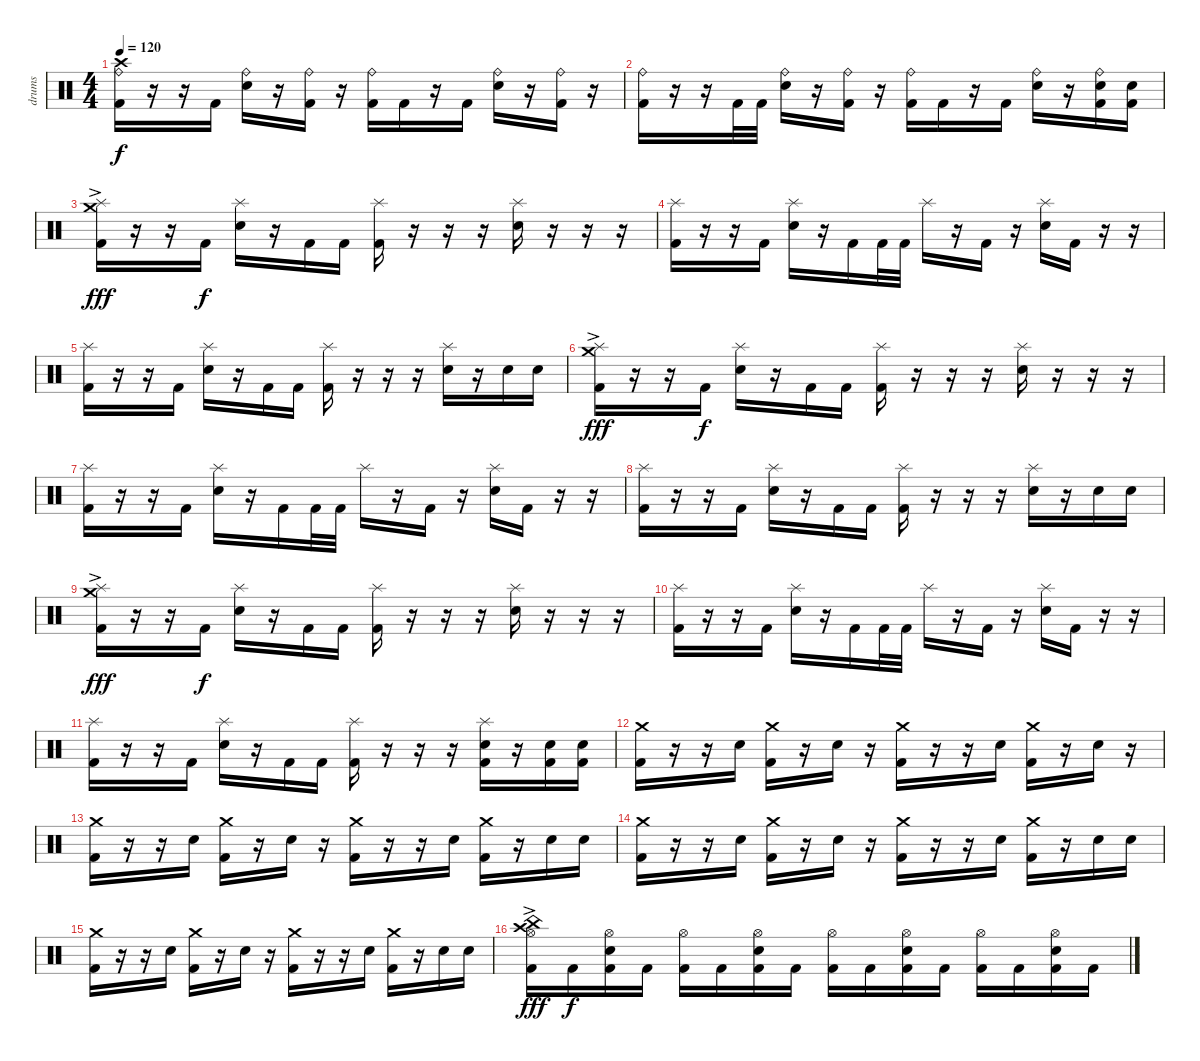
\track ("drums" "drums") {instrument percussion}
\staff {score}
\articulation defaults
\ts (4 4)
\tempo 120
\clef neutral
\ks c
("Crash high (hit)" "Ride (bell)" "Kick (hit) 2").16{dy f} r.16 r.16 "Kick (hit) 2".16 ("Ride (bell)" "Electric Snare (hit)").16 r.16 ("Ride (bell)" "Kick (hit) 2").16 r.16 ("Ride (bell)" "Kick (hit) 2").16 "Kick (hit) 2".16 r.16 "Kick (hit) 2".16 ("Ride (bell)" "Electric Snare (hit)").16 r.16 ("Ride (bell)" "Kick (hit) 2").16 r.16 |
("Ride (bell)" "Kick (hit) 2").16 r.16 r.16 "Kick (hit) 2".32 "Kick (hit) 2".32 ("Ride (bell)" "Electric Snare (hit)").16 r.16 ("Ride (bell)" "Kick (hit) 2").16 r.16 ("Ride (bell)" "Kick (hit) 2").16 "Kick (hit) 2".16 r.16 "Kick (hit) 2".16 ("Ride (bell)" "Electric Snare (hit)").16 r.16 ("Ride (bell)" "Electric Snare (hit)" "Kick (hit) 2").16 ("Electric Snare (hit)" "Kick (hit) 2").16 |
("Crash medium (hit)"{ac} "Splash (hit)" "Kick (hit) 2").16{dy fff} r.16 r.16 "Kick (hit) 2".16{dy f} ("Splash (hit)" "Electric Snare (hit)").16 r.16 "Kick (hit) 2".16 "Kick (hit) 2".16 ("Splash (hit)" "Kick (hit) 2").16 r.16 r.16 r.16 ("Splash (hit)" "Electric Snare (hit)").16 r.16 r.16 r.16 |
("Splash (hit)" "Kick (hit) 2").16 r.16 r.16 "Kick (hit) 2".16 ("Splash (hit)" "Electric Snare (hit)").16 r.16 "Kick (hit) 2".16 "Kick (hit) 2".32 "Kick (hit) 2".32 "Splash (hit)".16 r.16 "Kick (hit) 2".16 r.16 ("Splash (hit)" "Electric Snare (hit)").16 "Kick (hit) 2".16 r.16 r.16 |
("Splash (hit)" "Kick (hit) 2").16 r.16 r.16 "Kick (hit) 2".16 ("Splash (hit)" "Electric Snare (hit)").16 r.16 "Kick (hit) 2".16 "Kick (hit) 2".16 ("Splash (hit)" "Kick (hit) 2").16 r.16 r.16 r.16 ("Splash (hit)" "Electric Snare (hit)").16 r.16 "Electric Snare (hit)".16 "Electric Snare (hit)".16 |
("Crash medium (hit)"{ac} "Splash (hit)" "Kick (hit) 2").16{dy fff} r.16 r.16 "Kick (hit) 2".16{dy f} ("Splash (hit)" "Electric Snare (hit)").16 r.16 "Kick (hit) 2".16 "Kick (hit) 2".16 ("Splash (hit)" "Kick (hit) 2").16 r.16 r.16 r.16 ("Splash (hit)" "Electric Snare (hit)").16 r.16 r.16 r.16 |
("Splash (hit)" "Kick (hit) 2").16 r.16 r.16 "Kick (hit) 2".16 ("Splash (hit)" "Electric Snare (hit)").16 r.16 "Kick (hit) 2".16 "Kick (hit) 2".32 "Kick (hit) 2".32 "Splash (hit)".16 r.16 "Kick (hit) 2".16 r.16 ("Splash (hit)" "Electric Snare (hit)").16 "Kick (hit) 2".16 r.16 r.16 |
("Splash (hit)" "Kick (hit) 2").16 r.16 r.16 "Kick (hit) 2".16 ("Splash (hit)" "Electric Snare (hit)").16 r.16 "Kick (hit) 2".16 "Kick (hit) 2".16 ("Splash (hit)" "Kick (hit) 2").16 r.16 r.16 r.16 ("Splash (hit)" "Electric Snare (hit)").16 r.16 "Electric Snare (hit)".16 "Electric Snare (hit)".16 |
("Crash medium (hit)"{ac} "Splash (hit)" "Kick (hit) 2").16{dy fff} r.16 r.16 "Kick (hit) 2".16{dy f} ("Splash (hit)" "Electric Snare (hit)").16 r.16 "Kick (hit) 2".16 "Kick (hit) 2".16 ("Splash (hit)" "Kick (hit) 2").16 r.16 r.16 r.16 ("Splash (hit)" "Electric Snare (hit)").16 r.16 r.16 r.16 |
("Splash (hit)" "Kick (hit) 2").16 r.16 r.16 "Kick (hit) 2".16 ("Splash (hit)" "Electric Snare (hit)").16 r.16 "Kick (hit) 2".16 "Kick (hit) 2".32 "Kick (hit) 2".32 "Splash (hit)".16 r.16 "Kick (hit) 2".16 r.16 ("Splash (hit)" "Electric Snare (hit)").16 "Kick (hit) 2".16 r.16 r.16 |
("Splash (hit)" "Kick (hit) 2").16 r.16 r.16 "Kick (hit) 2".16 ("Splash (hit)" "Electric Snare (hit)").16 r.16 "Kick (hit) 2".16 "Kick (hit) 2".16 ("Splash (hit)" "Kick (hit) 2").16 r.16 r.16 r.16 ("Splash (hit)" "Electric Snare (hit)" "Kick (hit) 2").16 r.16 ("Electric Snare (hit)" "Kick (hit) 2").16 ("Electric Snare (hit)" "Kick (hit) 2").16 |
("Crash medium (hit)" "Kick (hit) 2").16 r.16 r.16 "Electric Snare (hit)".16 ("Crash medium (hit)" "Kick (hit) 2").16 r.16 "Electric Snare (hit)".16 r.16 ("Crash medium (hit)" "Kick (hit) 2").16 r.16 r.16 "Electric Snare (hit)".16 ("Crash medium (hit)" "Kick (hit) 2").16 r.16 "Electric Snare (hit)".16 r.16 |
("Crash medium (hit)" "Kick (hit) 2").16 r.16 r.16 "Electric Snare (hit)".16 ("Crash medium (hit)" "Kick (hit) 2").16 r.16 "Electric Snare (hit)".16 r.16 ("Crash medium (hit)" "Kick (hit) 2").16 r.16 r.16 "Electric Snare (hit)".16 ("Crash medium (hit)" "Kick (hit) 2").16 r.16 "Electric Snare (hit)".16 "Electric Snare (hit)".16 |
("Crash medium (hit)" "Kick (hit) 2").16 r.16 r.16 "Electric Snare (hit)".16 ("Crash medium (hit)" "Kick (hit) 2").16 r.16 "Electric Snare (hit)".16 r.16 ("Crash medium (hit)" "Kick (hit) 2").16 r.16 r.16 "Electric Snare (hit)".16 ("Crash medium (hit)" "Kick (hit) 2").16 r.16 "Electric Snare (hit)".16 "Electric Snare (hit)".16 |
("Crash medium (hit)" "Kick (hit) 2").16 r.16 r.16 "Electric Snare (hit)".16 ("Crash medium (hit)" "Kick (hit) 2").16 r.16 "Electric Snare (hit)".16 r.16 ("Crash medium (hit)" "Kick (hit) 2").16 r.16 r.16 "Electric Snare (hit)".16 ("Crash medium (hit)" "Kick (hit) 2").16 r.16 "Electric Snare (hit)".16 "Electric Snare (hit)".16 |
("China (hit)" "Crash high (hit)"{ac} "Hi-Hat (open)" "Kick (hit) 2").16{dy fff} "Kick (hit) 2".16{dy f} ("Hi-Hat (open)" "Electric Snare (hit)" "Kick (hit) 2").16 "Kick (hit) 2".16 ("Hi-Hat (open)" "Kick (hit) 2").16 "Kick (hit) 2".16 ("Hi-Hat (open)" "Electric Snare (hit)" "Kick (hit) 2").16 "Kick (hit) 2".16 ("Hi-Hat (open)" "Kick (hit) 2").16 "Kick (hit) 2".16 ("Hi-Hat (open)" "Electric Snare (hit)" "Kick (hit) 2").16 "Kick (hit) 2".16 ("Hi-Hat (open)" "Kick (hit) 2").16 "Kick (hit) 2".16 ("Hi-Hat (open)" "Electric Snare (hit)" "Kick (hit) 2").16 "Kick (hit) 2".16
